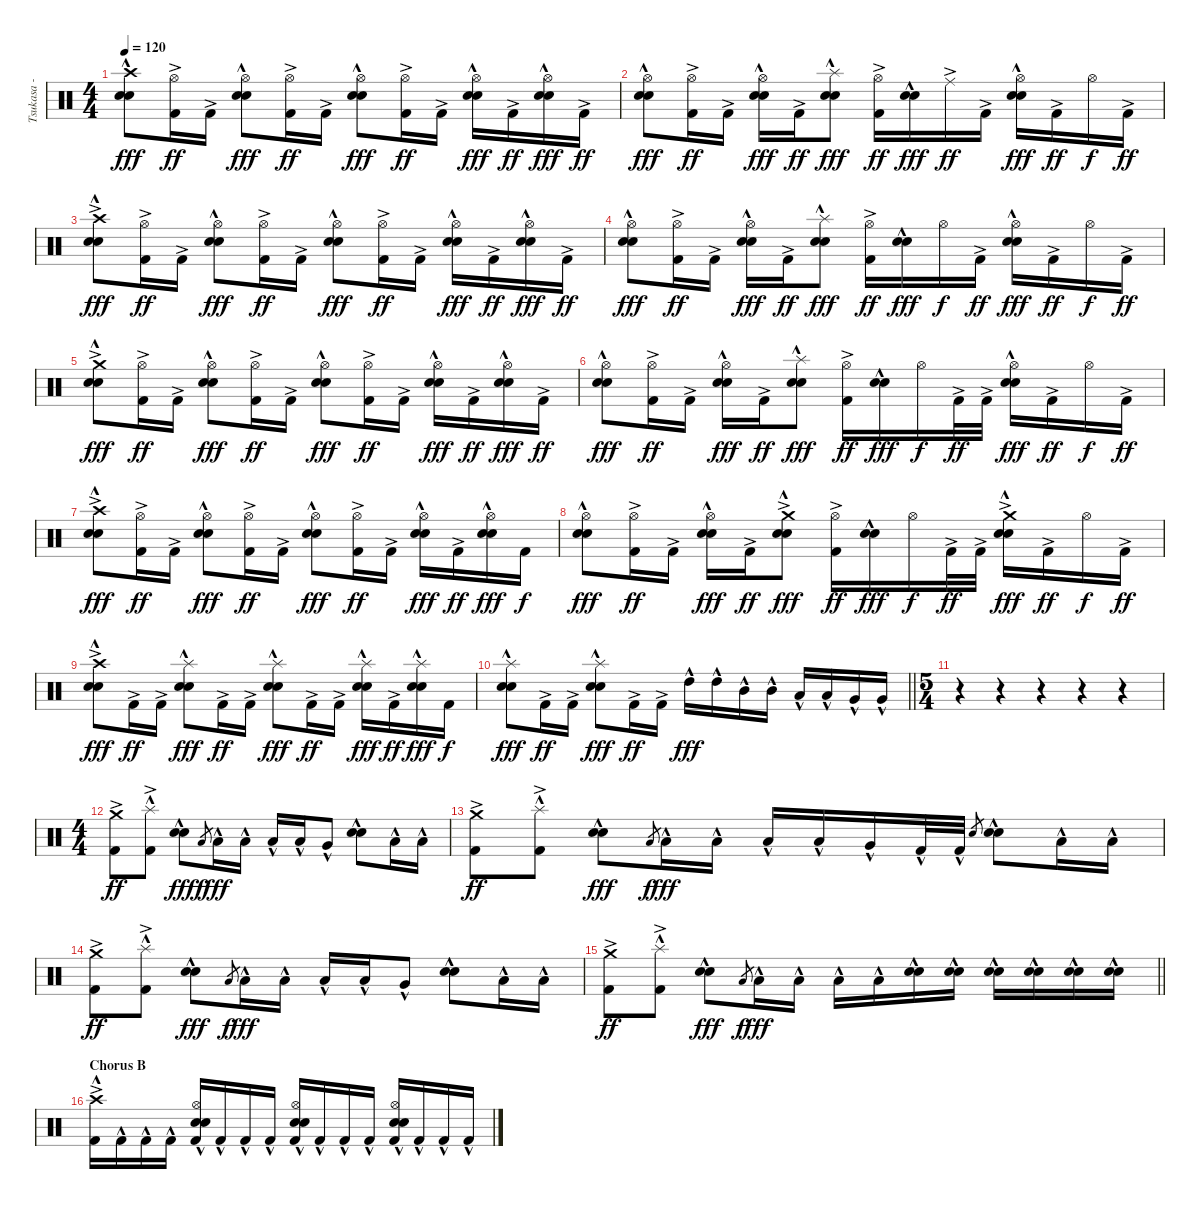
\track ("Tsukasa - Drums" "Tsukasa - ") {instrument percussion}
\staff {score}
\articulation defaults
\ts (4 4)
\tempo 120
\clef neutral
\ks c
("Crash high (hit)" "Electric Snare (hit)"{hac} "Snare (hit) 2"{hac}).8{dy fff} ("Hi-Hat (open)" "Kick (hit) 2"{ac}).16{dy ff} "Kick (hit) 2"{ac}.16 ("Hi-Hat (open)" "Electric Snare (hit)"{hac} "Snare (hit) 2"{hac}).8{dy fff} ("Hi-Hat (open)" "Kick (hit) 2"{ac}).16{dy ff} "Kick (hit) 2"{ac}.16 ("Hi-Hat (open)" "Electric Snare (hit)"{hac} "Snare (hit) 2"{hac}).8{dy fff} ("Hi-Hat (open)" "Kick (hit) 2"{ac}).16{dy ff} "Kick (hit) 2"{ac}.16 ("Hi-Hat (open)" "Electric Snare (hit)"{hac} "Snare (hit) 2"{hac}).16{dy fff} "Kick (hit) 2"{ac}.16{dy ff} ("Hi-Hat (open)" "Electric Snare (hit)"{hac} "Snare (hit) 2"{hac}).16{dy fff} "Kick (hit) 2"{ac}.16{dy ff} |
("Hi-Hat (open)" "Electric Snare (hit)"{hac} "Snare (hit) 2"{hac}).8{dy fff} ("Hi-Hat (open)" "Kick (hit) 2"{ac}).16{dy ff} "Kick (hit) 2"{ac}.16 ("Hi-Hat (open)" "Electric Snare (hit)"{hac} "Snare (hit) 2"{hac}).16{dy fff} "Kick (hit) 2"{ac}.16{dy ff} ("Splash (hit)"{hac} "Electric Snare (hit)"{hac} "Snare (hit) 2"{hac}).8{dy fff} ("Hi-Hat (open)" "Kick (hit) 2"{ac}).16{dy ff} ("Electric Snare (hit)"{hac} "Snare (hit) 2"{hac}).16{dy fff} "Ride (middle)"{ac}.16{dy ff} "Kick (hit) 2"{ac}.16 ("Hi-Hat (open)" "Electric Snare (hit)"{hac} "Snare (hit) 2"{hac}).16{dy fff} "Kick (hit) 2"{ac}.16{dy ff} "Hi-Hat (open)".16{dy f} "Kick (hit) 2"{ac}.16{dy ff} |
("Crash high (hit)"{ac} "Electric Snare (hit)"{hac} "Snare (hit) 2"{hac}).8{dy fff} ("Hi-Hat (open)" "Kick (hit) 2"{ac}).16{dy ff} "Kick (hit) 2"{ac}.16 ("Hi-Hat (open)" "Electric Snare (hit)"{hac} "Snare (hit) 2"{hac}).8{dy fff} ("Hi-Hat (open)" "Kick (hit) 2"{ac}).16{dy ff} "Kick (hit) 2"{ac}.16 ("Hi-Hat (open)" "Electric Snare (hit)"{hac} "Snare (hit) 2"{hac}).8{dy fff} ("Hi-Hat (open)" "Kick (hit) 2"{ac}).16{dy ff} "Kick (hit) 2"{ac}.16 ("Hi-Hat (open)" "Electric Snare (hit)"{hac} "Snare (hit) 2"{hac}).16{dy fff} "Kick (hit) 2"{ac}.16{dy ff} ("Hi-Hat (open)" "Electric Snare (hit)"{hac} "Snare (hit) 2"{hac}).16{dy fff} "Kick (hit) 2"{ac}.16{dy ff} |
("Hi-Hat (open)" "Electric Snare (hit)"{hac} "Snare (hit) 2"{hac}).8{dy fff} ("Hi-Hat (open)" "Kick (hit) 2"{ac}).16{dy ff} "Kick (hit) 2"{ac}.16 ("Hi-Hat (open)" "Electric Snare (hit)"{hac} "Snare (hit) 2"{hac}).16{dy fff} "Kick (hit) 2"{ac}.16{dy ff} ("Splash (hit)"{hac} "Electric Snare (hit)"{hac} "Snare (hit) 2"{hac}).8{dy fff} ("Hi-Hat (open)" "Kick (hit) 2"{ac}).16{dy ff} ("Electric Snare (hit)"{hac} "Snare (hit) 2"{hac}).16{dy fff} "Hi-Hat (open)".16{dy f} "Kick (hit) 2"{ac}.16{dy ff} ("Hi-Hat (open)" "Electric Snare (hit)"{hac} "Snare (hit) 2"{hac}).16{dy fff} "Kick (hit) 2"{ac}.16{dy ff} "Hi-Hat (open)".16{dy f} "Kick (hit) 2"{ac}.16{dy ff} |
("Crash medium (hit)"{ac} "Electric Snare (hit)"{hac} "Snare (hit) 2"{hac}).8{dy fff} ("Hi-Hat (open)" "Kick (hit) 2"{ac}).16{dy ff} "Kick (hit) 2"{ac}.16 ("Hi-Hat (open)" "Electric Snare (hit)"{hac} "Snare (hit) 2"{hac}).8{dy fff} ("Hi-Hat (open)" "Kick (hit) 2"{ac}).16{dy ff} "Kick (hit) 2"{ac}.16 ("Hi-Hat (open)" "Electric Snare (hit)"{hac} "Snare (hit) 2"{hac}).8{dy fff} ("Hi-Hat (open)" "Kick (hit) 2"{ac}).16{dy ff} "Kick (hit) 2"{ac}.16 ("Hi-Hat (open)" "Electric Snare (hit)"{hac} "Snare (hit) 2"{hac}).16{dy fff} "Kick (hit) 2"{ac}.16{dy ff} ("Hi-Hat (open)" "Electric Snare (hit)"{hac} "Snare (hit) 2"{hac}).16{dy fff} "Kick (hit) 2"{ac}.16{dy ff} |
("Hi-Hat (open)" "Electric Snare (hit)"{hac} "Snare (hit) 2"{hac}).8{dy fff} ("Hi-Hat (open)" "Kick (hit) 2"{ac}).16{dy ff} "Kick (hit) 2"{ac}.16 ("Hi-Hat (open)" "Electric Snare (hit)"{hac} "Snare (hit) 2"{hac}).16{dy fff} "Kick (hit) 2"{ac}.16{dy ff} ("Splash (hit)"{hac} "Electric Snare (hit)"{hac} "Snare (hit) 2"{hac}).8{dy fff} ("Hi-Hat (open)" "Kick (hit) 2"{ac}).16{dy ff} ("Electric Snare (hit)"{hac} "Snare (hit) 2"{hac}).16{dy fff} "Hi-Hat (open)".16{dy f} "Kick (hit) 2"{ac}.32{dy ff} "Kick (hit) 2"{ac}.32 ("Hi-Hat (open)" "Electric Snare (hit)"{hac} "Snare (hit) 2"{hac}).16{dy fff} "Kick (hit) 2"{ac}.16{dy ff} "Hi-Hat (open)".16{dy f} "Kick (hit) 2"{ac}.16{dy ff} |
("Crash high (hit)"{ac} "Electric Snare (hit)"{hac} "Snare (hit) 2"{hac}).8{dy fff} ("Hi-Hat (open)" "Kick (hit) 2"{ac}).16{dy ff} "Kick (hit) 2"{ac}.16 ("Hi-Hat (open)" "Electric Snare (hit)"{hac} "Snare (hit) 2"{hac}).8{dy fff} ("Hi-Hat (open)" "Kick (hit) 2"{ac}).16{dy ff} "Kick (hit) 2"{ac}.16 ("Hi-Hat (open)" "Electric Snare (hit)"{hac} "Snare (hit) 2"{hac}).8{dy fff} ("Hi-Hat (open)" "Kick (hit) 2"{ac}).16{dy ff} "Kick (hit) 2"{ac}.16 ("Hi-Hat (open)" "Electric Snare (hit)"{hac} "Snare (hit) 2"{hac}).16{dy fff} "Kick (hit) 2"{ac}.16{dy ff} ("Hi-Hat (open)" "Electric Snare (hit)"{hac} "Snare (hit) 2"{hac}).16{dy fff} "Kick (hit) 2".16{dy f} |
("Hi-Hat (open)" "Electric Snare (hit)"{hac} "Snare (hit) 2"{hac}).8{dy fff} ("Hi-Hat (open)" "Kick (hit) 2"{ac}).16{dy ff} "Kick (hit) 2"{ac}.16 ("Hi-Hat (open)" "Electric Snare (hit)"{hac} "Snare (hit) 2"{hac}).16{dy fff} "Kick (hit) 2"{ac}.16{dy ff} ("Crash medium (hit)"{ac} "Electric Snare (hit)"{hac} "Snare (hit) 2"{hac}).8{dy fff} ("Hi-Hat (open)" "Kick (hit) 2"{ac}).16{dy ff} ("Electric Snare (hit)"{hac} "Snare (hit) 2"{hac}).16{dy fff} "Hi-Hat (open)".16{dy f} "Kick (hit) 2"{ac}.32{dy ff} "Kick (hit) 2"{ac}.32 ("Crash medium (hit)"{ac} "Electric Snare (hit)"{hac} "Snare (hit) 2"{hac}).16{dy fff} "Kick (hit) 2"{ac}.16{dy ff} "Hi-Hat (open)".16{dy f} "Kick (hit) 2"{ac}.16{dy ff} |
("Crash high (hit)"{ac} "Electric Snare (hit)"{hac} "Snare (hit) 2"{hac}).8{dy fff} "Kick (hit) 2"{ac}.16{dy ff} "Kick (hit) 2"{ac}.16 ("Splash (hit)"{hac} "Electric Snare (hit)"{hac} "Snare (hit) 2"{hac}).8{dy fff} "Kick (hit) 2"{ac}.16{dy ff} "Kick (hit) 2"{ac}.16 ("Splash (hit)"{hac} "Electric Snare (hit)"{hac} "Snare (hit) 2"{hac}).8{dy fff} "Kick (hit) 2"{ac}.16{dy ff} "Kick (hit) 2"{ac}.16 ("Splash (hit)"{hac} "Electric Snare (hit)"{hac} "Snare (hit) 2"{hac}).16{dy fff} "Kick (hit) 2"{ac}.16{dy ff} ("Splash (hit)"{hac} "Electric Snare (hit)"{hac} "Snare (hit) 2"{hac}).16{dy fff} "Kick (hit) 2".16{dy f} |
\barLineRight lightlight
("Splash (hit)" "Electric Snare (hit)"{hac} "Snare (hit) 2"{hac}).8{dy fff} "Kick (hit) 2"{ac}.16{dy ff} "Kick (hit) 2"{ac}.16 ("Splash (hit)"{hac} "Electric Snare (hit)"{hac} "Snare (hit) 2"{hac}).8{dy fff} "Kick (hit) 2"{ac}.16{dy ff} "Kick (hit) 2"{ac}.16 "High Tom (hit)"{hac}.16{dy fff} "High Tom (hit)"{hac}.16 "Mid Tom (hit)"{hac}.16 "Mid Tom (hit)"{hac}.16 "Low Tom (hit)"{hac}.16 "Low Tom (hit)"{hac}.16 "Very Low Tom (hit)"{hac}.16 "Very Low Tom (hit)"{hac}.16 |
\ts (5 4)
\section ("" "")
r.4 r.4 r.4 r.4 r.4 |
\ts (4 4)
("Crash medium (hit)"{ac} "Kick (hit) 2"{ac}).8{dy ff} ("Splash (hit)"{hac} "Kick (hit) 2"{ac}).8 ("Electric Snare (hit)"{hac} "Snare (hit) 2"{hac}).8{dy fff} "Low Tom (hit)".8{gr dy f} "Low Tom (hit)"{hac}.16{dy fff} "Low Tom (hit)"{hac}.16 "Low Tom (hit)"{hac}.16 "Low Tom (hit)"{hac}.16 "Very Low Tom (hit)"{hac}.8 ("Electric Snare (hit)"{hac} "Snare (hit) 2"{hac}).8 "Low Floor Tom (hit)"{hac}.16 "Low Floor Tom (hit)"{hac}.16 |
("Crash medium (hit)"{ac} "Kick (hit) 2"{ac}).8{dy ff} ("Splash (hit)"{hac} "Kick (hit) 2"{ac}).8 ("Electric Snare (hit)"{hac} "Snare (hit) 2"{hac}).8{dy fff} "Low Tom (hit)".8{gr dy f} "Low Tom (hit)"{hac}.16{dy fff} "Low Tom (hit)"{hac}.16 "Low Tom (hit)"{hac}.16 "Low Tom (hit)"{hac}.16 "Very Low Tom (hit)"{hac}.16 "Kick (hit) 2"{hac}.32 "Kick (hit) 2"{hac}.32 "Electric Snare (hit)".8{gr} ("Electric Snare (hit)"{hac} "Snare (hit) 2"{hac}).8 "Low Floor Tom (hit)"{hac}.16 "Low Floor Tom (hit)"{hac}.16 |
("Crash medium (hit)"{ac} "Kick (hit) 2"{ac}).8{dy ff} ("Splash (hit)"{hac} "Kick (hit) 2"{ac}).8 ("Electric Snare (hit)"{hac} "Snare (hit) 2"{hac}).8{dy fff} "Low Tom (hit)".8{gr dy f} "Low Tom (hit)"{hac}.16{dy fff} "Low Tom (hit)"{hac}.16 "Low Tom (hit)"{hac}.16 "Low Tom (hit)"{hac}.16 "Very Low Tom (hit)"{hac}.8 ("Electric Snare (hit)"{hac} "Snare (hit) 2"{hac}).8 "Low Floor Tom (hit)"{hac}.16 "Low Floor Tom (hit)"{hac}.16 |
\barLineRight lightlight
("Crash medium (hit)"{ac} "Kick (hit) 2"{ac}).8{dy ff} ("Splash (hit)"{hac} "Kick (hit) 2"{ac}).8 ("Electric Snare (hit)"{hac} "Snare (hit) 2"{hac}).8{dy fff} "Low Tom (hit)".8{gr dy f} "Low Tom (hit)"{hac}.16{dy fff} "Low Tom (hit)"{hac}.16 "Low Tom (hit)"{hac}.16 "Low Tom (hit)"{hac}.16 ("Electric Snare (hit)"{hac} "Snare (hit) 2"{hac}).16 ("Electric Snare (hit)"{hac} "Snare (hit) 2"{hac}).16 ("Electric Snare (hit)"{hac} "Snare (hit) 2"{hac}).16 ("Electric Snare (hit)"{hac} "Snare (hit) 2"{hac}).16 ("Electric Snare (hit)"{hac} "Snare (hit) 2"{hac}).16 ("Electric Snare (hit)"{hac} "Snare (hit) 2"{hac}).16 |
\section ("" "Chorus B")
("Crash high (hit)"{ac} "Kick (hit) 2"{hac}).16 "Kick (hit) 2"{hac}.16 "Kick (hit) 2"{hac}.16 "Kick (hit) 2"{hac}.16 ("Hi-Hat (open)" "Electric Snare (hit)"{hac} "Snare (hit) 2"{hac} "Kick (hit) 2"{hac}).16 "Kick (hit) 2"{hac}.16 "Kick (hit) 2"{hac}.16 "Kick (hit) 2"{hac}.16 ("Hi-Hat (open)" "Electric Snare (hit)"{hac} "Snare (hit) 2"{hac} "Kick (hit) 2"{hac}).16 "Kick (hit) 2"{hac}.16 "Kick (hit) 2"{hac}.16 "Kick (hit) 2"{hac}.16 ("Hi-Hat (open)" "Electric Snare (hit)"{hac} "Snare (hit) 2"{hac} "Kick (hit) 2"{hac}).16 "Kick (hit) 2"{hac}.16 "Kick (hit) 2"{hac}.16 "Kick (hit) 2"{hac}.16
